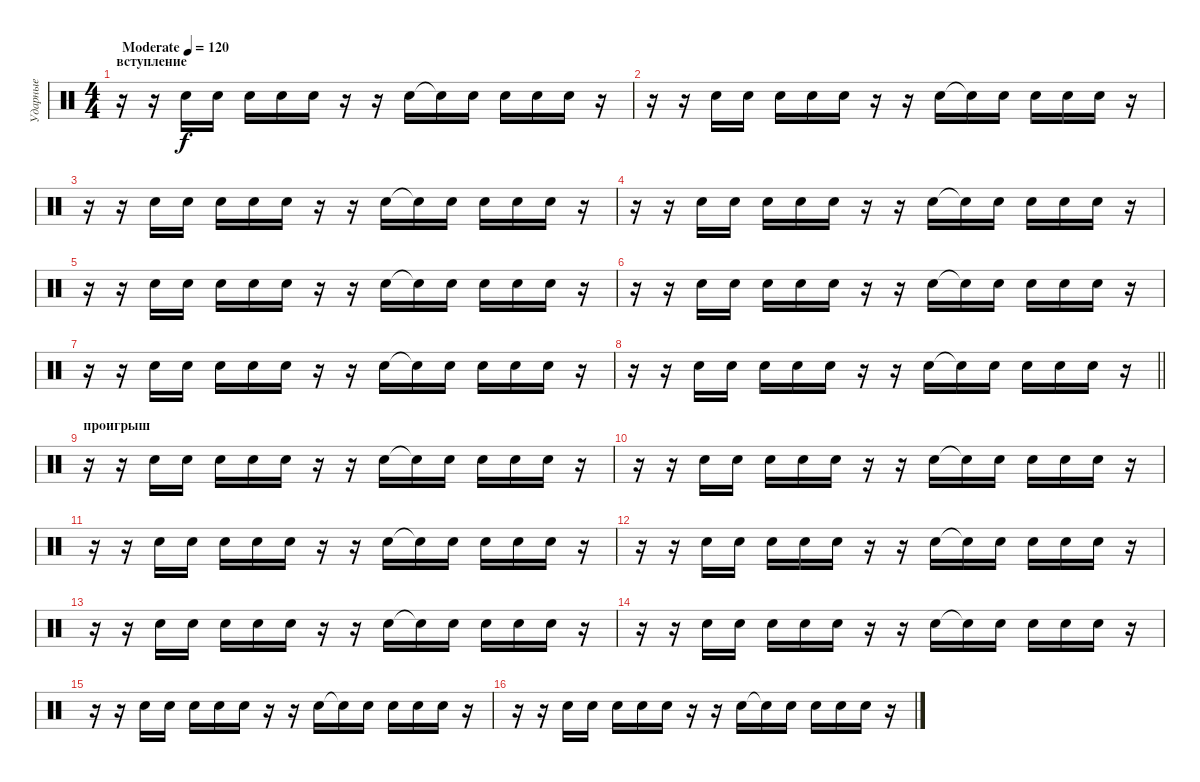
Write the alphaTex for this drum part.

\track ("Ударные" "Ударные") {instrument percussion}
\staff {score}
\articulation defaults
\ts (4 4)
\section ("" "вступление")
\tempo (120 "Moderate")
\clef neutral
\ks c
r.16{dy f} r.16 "Hand Clap (hit)".16 "Hand Clap (hit)".16 "Hand Clap (hit)".16 "Hand Clap (hit)".16 "Hand Clap (hit)".16 r.16 r.16 "Hand Clap (hit)".16 "Hand Clap (hit)"{t}.16 "Hand Clap (hit)".16 "Hand Clap (hit)".16 "Hand Clap (hit)".16 "Hand Clap (hit)".16 r.16 |
r.16 r.16 "Hand Clap (hit)".16 "Hand Clap (hit)".16 "Hand Clap (hit)".16 "Hand Clap (hit)".16 "Hand Clap (hit)".16 r.16 r.16 "Hand Clap (hit)".16 "Hand Clap (hit)"{t}.16 "Hand Clap (hit)".16 "Hand Clap (hit)".16 "Hand Clap (hit)".16 "Hand Clap (hit)".16 r.16 |
r.16 r.16 "Hand Clap (hit)".16 "Hand Clap (hit)".16 "Hand Clap (hit)".16 "Hand Clap (hit)".16 "Hand Clap (hit)".16 r.16 r.16 "Hand Clap (hit)".16 "Hand Clap (hit)"{t}.16 "Hand Clap (hit)".16 "Hand Clap (hit)".16 "Hand Clap (hit)".16 "Hand Clap (hit)".16 r.16 |
r.16 r.16 "Hand Clap (hit)".16 "Hand Clap (hit)".16 "Hand Clap (hit)".16 "Hand Clap (hit)".16 "Hand Clap (hit)".16 r.16 r.16 "Hand Clap (hit)".16 "Hand Clap (hit)"{t}.16 "Hand Clap (hit)".16 "Hand Clap (hit)".16 "Hand Clap (hit)".16 "Hand Clap (hit)".16 r.16 |
r.16 r.16 "Hand Clap (hit)".16 "Hand Clap (hit)".16 "Hand Clap (hit)".16 "Hand Clap (hit)".16 "Hand Clap (hit)".16 r.16 r.16 "Hand Clap (hit)".16 "Hand Clap (hit)"{t}.16 "Hand Clap (hit)".16 "Hand Clap (hit)".16 "Hand Clap (hit)".16 "Hand Clap (hit)".16 r.16 |
r.16 r.16 "Hand Clap (hit)".16 "Hand Clap (hit)".16 "Hand Clap (hit)".16 "Hand Clap (hit)".16 "Hand Clap (hit)".16 r.16 r.16 "Hand Clap (hit)".16 "Hand Clap (hit)"{t}.16 "Hand Clap (hit)".16 "Hand Clap (hit)".16 "Hand Clap (hit)".16 "Hand Clap (hit)".16 r.16 |
r.16 r.16 "Hand Clap (hit)".16 "Hand Clap (hit)".16 "Hand Clap (hit)".16 "Hand Clap (hit)".16 "Hand Clap (hit)".16 r.16 r.16 "Hand Clap (hit)".16 "Hand Clap (hit)"{t}.16 "Hand Clap (hit)".16 "Hand Clap (hit)".16 "Hand Clap (hit)".16 "Hand Clap (hit)".16 r.16 |
\barLineRight lightlight
r.16 r.16 "Hand Clap (hit)".16 "Hand Clap (hit)".16 "Hand Clap (hit)".16 "Hand Clap (hit)".16 "Hand Clap (hit)".16 r.16 r.16 "Hand Clap (hit)".16 "Hand Clap (hit)"{t}.16 "Hand Clap (hit)".16 "Hand Clap (hit)".16 "Hand Clap (hit)".16 "Hand Clap (hit)".16 r.16 |
\section ("" "проигрыш")
r.16 r.16 "Hand Clap (hit)".16 "Hand Clap (hit)".16 "Hand Clap (hit)".16 "Hand Clap (hit)".16 "Hand Clap (hit)".16 r.16 r.16 "Hand Clap (hit)".16 "Hand Clap (hit)"{t}.16 "Hand Clap (hit)".16 "Hand Clap (hit)".16 "Hand Clap (hit)".16 "Hand Clap (hit)".16 r.16 |
r.16 r.16 "Hand Clap (hit)".16 "Hand Clap (hit)".16 "Hand Clap (hit)".16 "Hand Clap (hit)".16 "Hand Clap (hit)".16 r.16 r.16 "Hand Clap (hit)".16 "Hand Clap (hit)"{t}.16 "Hand Clap (hit)".16 "Hand Clap (hit)".16 "Hand Clap (hit)".16 "Hand Clap (hit)".16 r.16 |
r.16 r.16 "Hand Clap (hit)".16 "Hand Clap (hit)".16 "Hand Clap (hit)".16 "Hand Clap (hit)".16 "Hand Clap (hit)".16 r.16 r.16 "Hand Clap (hit)".16 "Hand Clap (hit)"{t}.16 "Hand Clap (hit)".16 "Hand Clap (hit)".16 "Hand Clap (hit)".16 "Hand Clap (hit)".16 r.16 |
r.16 r.16 "Hand Clap (hit)".16 "Hand Clap (hit)".16 "Hand Clap (hit)".16 "Hand Clap (hit)".16 "Hand Clap (hit)".16 r.16 r.16 "Hand Clap (hit)".16 "Hand Clap (hit)"{t}.16 "Hand Clap (hit)".16 "Hand Clap (hit)".16 "Hand Clap (hit)".16 "Hand Clap (hit)".16 r.16 |
r.16 r.16 "Hand Clap (hit)".16 "Hand Clap (hit)".16 "Hand Clap (hit)".16 "Hand Clap (hit)".16 "Hand Clap (hit)".16 r.16 r.16 "Hand Clap (hit)".16 "Hand Clap (hit)"{t}.16 "Hand Clap (hit)".16 "Hand Clap (hit)".16 "Hand Clap (hit)".16 "Hand Clap (hit)".16 r.16 |
r.16 r.16 "Hand Clap (hit)".16 "Hand Clap (hit)".16 "Hand Clap (hit)".16 "Hand Clap (hit)".16 "Hand Clap (hit)".16 r.16 r.16 "Hand Clap (hit)".16 "Hand Clap (hit)"{t}.16 "Hand Clap (hit)".16 "Hand Clap (hit)".16 "Hand Clap (hit)".16 "Hand Clap (hit)".16 r.16 |
r.16 r.16 "Hand Clap (hit)".16 "Hand Clap (hit)".16 "Hand Clap (hit)".16 "Hand Clap (hit)".16 "Hand Clap (hit)".16 r.16 r.16 "Hand Clap (hit)".16 "Hand Clap (hit)"{t}.16 "Hand Clap (hit)".16 "Hand Clap (hit)".16 "Hand Clap (hit)".16 "Hand Clap (hit)".16 r.16 |
r.16 r.16 "Hand Clap (hit)".16 "Hand Clap (hit)".16 "Hand Clap (hit)".16 "Hand Clap (hit)".16 "Hand Clap (hit)".16 r.16 r.16 "Hand Clap (hit)".16 "Hand Clap (hit)"{t}.16 "Hand Clap (hit)".16 "Hand Clap (hit)".16 "Hand Clap (hit)".16 "Hand Clap (hit)".16 r.16
